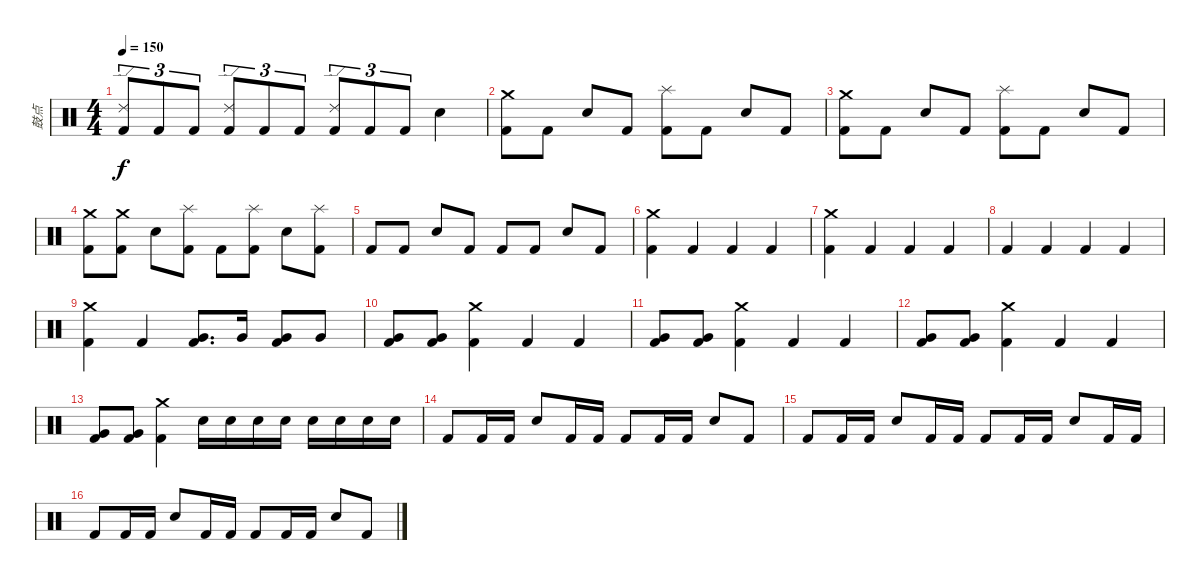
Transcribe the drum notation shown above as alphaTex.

\track ("鼓点" "鼓点") {instrument percussion}
\staff {score}
\articulation defaults
\ts (4 4)
\tempo 150
\clef neutral
\ks c
("Kick (hit) 2" "Ride (edge) 2").8{tu (3 2) dy f} "Kick (hit) 2".8{tu (3 2)} "Kick (hit) 2".8{tu (3 2)} ("Kick (hit) 2" "Ride (edge) 2").8{tu (3 2)} "Kick (hit) 2".8{tu (3 2)} "Kick (hit) 2".8{tu (3 2)} ("Kick (hit) 2" "Ride (edge) 2").8{tu (3 2)} "Kick (hit) 2".8{tu (3 2)} "Kick (hit) 2".8{tu (3 2)} "Snare (hit) 2".4 |
("Kick (hit) 2" "Crash medium (hit)").8 "Kick (hit) 2".8 "Snare (hit) 2".8 "Kick (hit) 2".8 ("Kick (hit) 2" "Splash (hit)").8 "Kick (hit) 2".8 "Snare (hit) 2".8 "Kick (hit) 2".8 |
("Kick (hit) 2" "Crash medium (hit)").8 "Kick (hit) 2".8 "Snare (hit) 2".8 "Kick (hit) 2".8 ("Kick (hit) 2" "Splash (hit)").8 "Kick (hit) 2".8 "Snare (hit) 2".8 "Kick (hit) 2".8 |
("Kick (hit) 2" "Crash medium (hit)").8 ("Kick (hit) 2" "Crash medium (hit)").8 "Snare (hit) 2".8 ("Kick (hit) 2" "Splash (hit)").8 "Kick (hit) 2".8 ("Kick (hit) 2" "Splash (hit)").8 "Snare (hit) 2".8 ("Kick (hit) 2" "Splash (hit)").8 |
"Kick (hit) 2".8 "Kick (hit) 2".8 "Snare (hit) 2".8 "Kick (hit) 2".8 "Kick (hit) 2".8 "Kick (hit) 2".8 "Snare (hit) 2".8 "Kick (hit) 2".8 |
("Kick (hit) 2" "Crash medium (hit)").4 "Kick (hit) 2".4 "Kick (hit) 2".4 "Kick (hit) 2".4 |
("Kick (hit) 2" "Crash medium (hit)").4 "Kick (hit) 2".4 "Kick (hit) 2".4 "Kick (hit) 2".4 |
"Kick (hit) 2".4 "Kick (hit) 2".4 "Kick (hit) 2".4 "Kick (hit) 2".4 |
("Kick (hit) 2" "Crash medium (hit)").4 "Kick (hit) 2".4 ("Kick (hit) 2" "Very Low Tom (hit)").8{d} "Very Low Tom (hit)".16 ("Kick (hit) 2" "Very Low Tom (hit)").8 "Very Low Tom (hit)".8 |
("Kick (hit) 2" "Very Low Tom (hit)").8 ("Kick (hit) 2" "Very Low Tom (hit)").8 ("Kick (hit) 2" "Crash medium (hit)").4 "Kick (hit) 2".4 "Kick (hit) 2".4 |
("Kick (hit) 2" "Very Low Tom (hit)").8 ("Kick (hit) 2" "Very Low Tom (hit)").8 ("Kick (hit) 2" "Crash medium (hit)").4 "Kick (hit) 2".4 "Kick (hit) 2".4 |
("Kick (hit) 2" "Very Low Tom (hit)").8 ("Kick (hit) 2" "Very Low Tom (hit)").8 ("Kick (hit) 2" "Crash medium (hit)").4 "Kick (hit) 2".4 "Kick (hit) 2".4 |
("Kick (hit) 2" "Very Low Tom (hit)").8 ("Kick (hit) 2" "Very Low Tom (hit)").8 ("Kick (hit) 2" "Crash medium (hit)").4 "Snare (hit) 2".16 "Snare (hit) 2".16 "Snare (hit) 2".16 "Snare (hit) 2".16 "Snare (hit) 2".16 "Snare (hit) 2".16 "Snare (hit) 2".16 "Snare (hit) 2".16 |
"Kick (hit) 2".8 "Kick (hit) 2".16 "Kick (hit) 2".16 "Snare (hit) 2".8 "Kick (hit) 2".16 "Kick (hit) 2".16 "Kick (hit) 2".8 "Kick (hit) 2".16 "Kick (hit) 2".16 "Snare (hit) 2".8 "Kick (hit) 2".8 |
"Kick (hit) 2".8 "Kick (hit) 2".16 "Kick (hit) 2".16 "Snare (hit) 2".8 "Kick (hit) 2".16 "Kick (hit) 2".16 "Kick (hit) 2".8 "Kick (hit) 2".16 "Kick (hit) 2".16 "Snare (hit) 2".8 "Kick (hit) 2".16 "Kick (hit) 2".16 |
"Kick (hit) 2".8 "Kick (hit) 2".16 "Kick (hit) 2".16 "Snare (hit) 2".8 "Kick (hit) 2".16 "Kick (hit) 2".16 "Kick (hit) 2".8 "Kick (hit) 2".16 "Kick (hit) 2".16 "Snare (hit) 2".8 "Kick (hit) 2".8
